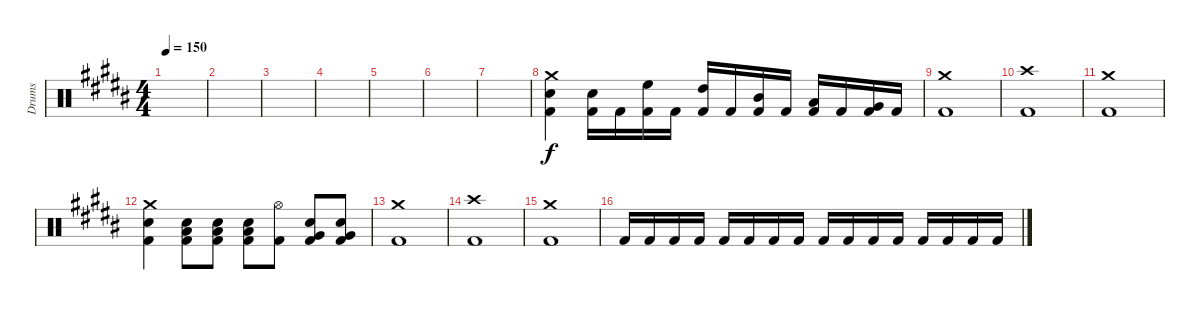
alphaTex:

\track ("Drums" "Drums") {instrument percussion}
\staff {score}
\articulation defaults
\ts (4 4)
\tempo 150
\clef neutral
\ks b
|
|
|
|
|
|
|
("Crash medium (hit)" "Snare (hit) 2" "Kick (hit) 2").4 ("Snare (hit) 2" "Kick (hit) 2").16 "Kick (hit) 2".16 ("High Floor Tom (hit)" "Kick (hit) 2").16 "Kick (hit) 2".16 ("High Tom (hit)" "Kick (hit) 2").16 "Kick (hit) 2".16 ("Mid Tom (hit)" "Kick (hit) 2").16 "Kick (hit) 2".16 ("Low Tom (hit)" "Kick (hit) 2").16 "Kick (hit) 2".16 ("Very Low Tom (hit)" "Kick (hit) 2").16 "Kick (hit) 2".16 |
("Crash medium (hit)" "Kick (hit) 2").1 |
("Crash high (hit)" "Kick (hit) 2").1 |
("Crash medium (hit)" "Kick (hit) 2").1 |
("Crash medium (hit)" "Snare (hit) 2" "Kick (hit) 2").4 ("Low Tom (hit)" "Snare (hit) 2" "Kick (hit) 2").8 ("Low Tom (hit)" "Snare (hit) 2" "Kick (hit) 2").8 ("Low Tom (hit)" "Snare (hit) 2" "Kick (hit) 2").8 ("Hi-Hat (open)" "Kick (hit) 2").8 ("Very Low Tom (hit)" "Snare (hit) 2" "Kick (hit) 2").8 ("Very Low Tom (hit)" "Snare (hit) 2" "Kick (hit) 2").8 |
("Crash medium (hit)" "Kick (hit) 2").1 |
("Crash high (hit)" "Kick (hit) 2").1 |
("Crash medium (hit)" "Kick (hit) 2").1 |
"Kick (hit) 2".16 "Kick (hit) 2".16 "Kick (hit) 2".16 "Kick (hit) 2".16 "Kick (hit) 2".16 "Kick (hit) 2".16 "Kick (hit) 2".16 "Kick (hit) 2".16 "Kick (hit) 2".16 "Kick (hit) 2".16 "Kick (hit) 2".16 "Kick (hit) 2".16 "Kick (hit) 2".16 "Kick (hit) 2".16 "Kick (hit) 2".16 "Kick (hit) 2".16
